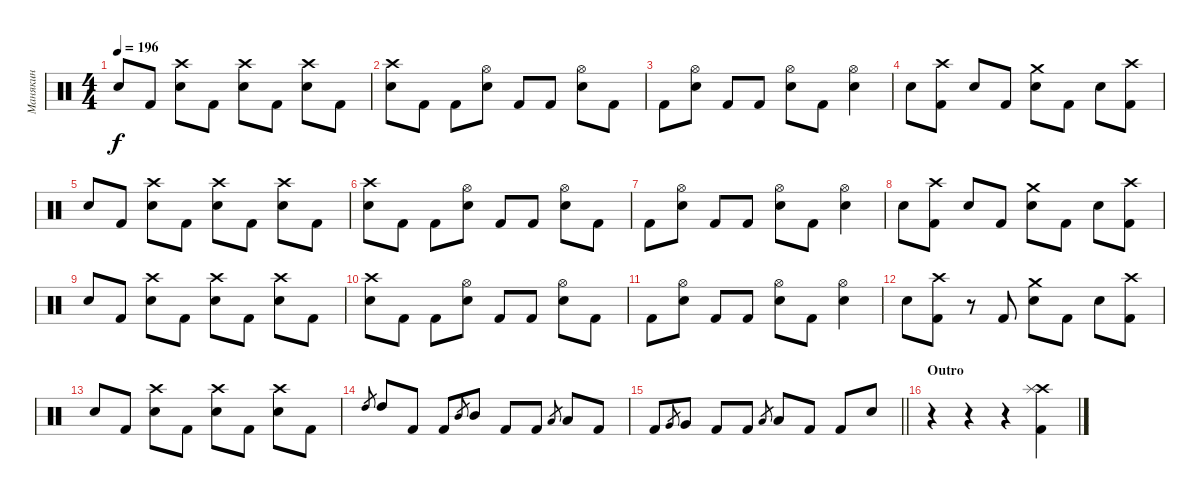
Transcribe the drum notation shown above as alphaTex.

\track ("Манякин" "Манякин") {instrument percussion}
\staff {score}
\articulation defaults
\ts (4 4)
\tempo 196
\clef neutral
\ks c "Electric Snare (hit)".8{dy f} "Kick (hit) 2".8
("Crash high (hit)" "Electric Snare (hit)").8 "Kick (hit) 2".8 ("Crash high (hit)" "Electric Snare (hit)").8 "Kick (hit) 2".8 ("Crash high (hit)" "Electric Snare (hit)").8 "Kick (hit) 2".8 |
("Crash high (hit)" "Electric Snare (hit)").8 "Kick (hit) 2".8 "Kick (hit) 2".8 ("Hi-Hat (open)" "Electric Snare (hit)").8 "Kick (hit) 2".8 "Kick (hit) 2".8 ("Hi-Hat (open)" "Electric Snare (hit)").8 "Kick (hit) 2".8 |
"Kick (hit) 2".8 ("Hi-Hat (open)" "Electric Snare (hit)").8 "Kick (hit) 2".8 "Kick (hit) 2".8 ("Hi-Hat (open)" "Electric Snare (hit)").8 "Kick (hit) 2".8 ("Hi-Hat (open)" "Electric Snare (hit)").4 |
"Electric Snare (hit)".8 ("Crash high (hit)" "Kick (hit) 2").8 "Electric Snare (hit)".8 "Kick (hit) 2".8 ("Crash medium (hit)" "Electric Snare (hit)").8 "Kick (hit) 2".8 "Electric Snare (hit)".8 ("Crash high (hit)" "Kick (hit) 2").8 |
"Electric Snare (hit)".8 "Kick (hit) 2".8 ("Crash high (hit)" "Electric Snare (hit)").8 "Kick (hit) 2".8 ("Crash high (hit)" "Electric Snare (hit)").8 "Kick (hit) 2".8 ("Crash high (hit)" "Electric Snare (hit)").8 "Kick (hit) 2".8 |
("Crash high (hit)" "Electric Snare (hit)").8 "Kick (hit) 2".8 "Kick (hit) 2".8 ("Hi-Hat (open)" "Electric Snare (hit)").8 "Kick (hit) 2".8 "Kick (hit) 2".8 ("Hi-Hat (open)" "Electric Snare (hit)").8 "Kick (hit) 2".8 |
"Kick (hit) 2".8 ("Hi-Hat (open)" "Electric Snare (hit)").8 "Kick (hit) 2".8 "Kick (hit) 2".8 ("Hi-Hat (open)" "Electric Snare (hit)").8 "Kick (hit) 2".8 ("Hi-Hat (open)" "Electric Snare (hit)").4 |
"Electric Snare (hit)".8 ("Crash high (hit)" "Kick (hit) 2").8 "Electric Snare (hit)".8 "Kick (hit) 2".8 ("Crash medium (hit)" "Electric Snare (hit)").8 "Kick (hit) 2".8 "Electric Snare (hit)".8 ("Crash high (hit)" "Kick (hit) 2").8 |
"Electric Snare (hit)".8 "Kick (hit) 2".8 ("Crash high (hit)" "Electric Snare (hit)").8 "Kick (hit) 2".8 ("Crash high (hit)" "Electric Snare (hit)").8 "Kick (hit) 2".8 ("Crash high (hit)" "Electric Snare (hit)").8 "Kick (hit) 2".8 |
("Crash high (hit)" "Electric Snare (hit)").8 "Kick (hit) 2".8 "Kick (hit) 2".8 ("Hi-Hat (open)" "Electric Snare (hit)").8 "Kick (hit) 2".8 "Kick (hit) 2".8 ("Hi-Hat (open)" "Electric Snare (hit)").8 "Kick (hit) 2".8 |
"Kick (hit) 2".8 ("Hi-Hat (open)" "Electric Snare (hit)").8 "Kick (hit) 2".8 "Kick (hit) 2".8 ("Hi-Hat (open)" "Electric Snare (hit)").8 "Kick (hit) 2".8 ("Hi-Hat (open)" "Electric Snare (hit)").4 |
"Electric Snare (hit)".8 ("Crash high (hit)" "Kick (hit) 2").8 r.8 "Kick (hit) 2".8 ("Crash medium (hit)" "Electric Snare (hit)").8 "Kick (hit) 2".8 "Electric Snare (hit)".8 ("Crash high (hit)" "Kick (hit) 2").8 |
"Electric Snare (hit)".8 "Kick (hit) 2".8 ("Crash high (hit)" "Electric Snare (hit)").8 "Kick (hit) 2".8 ("Crash high (hit)" "Electric Snare (hit)").8 "Kick (hit) 2".8 ("Crash high (hit)" "Electric Snare (hit)").8 "Kick (hit) 2".8 |
"High Tom (hit)".8{gr} "High Tom (hit)".8 "Kick (hit) 2".8 "Kick (hit) 2".8 "Mid Tom (hit)".8{gr} "Mid Tom (hit)".8 "Kick (hit) 2".8 "Kick (hit) 2".8 "Low Tom (hit)".8{gr} "Low Tom (hit)".8 "Kick (hit) 2".8 |
\barLineRight lightlight "Kick (hit) 2".8 "Very Low Tom (hit)".8{gr} "Very Low Tom (hit)".8 "Kick (hit) 2".8 "Kick (hit) 2".8 "Low Floor Tom (hit)".8{gr} "Low Floor Tom (hit)".8 "Kick (hit) 2".8 "Kick (hit) 2".8 "Electric Snare (hit)".8
|
\section ("" "Outro")
r.4 r.4 r.4 ("Crash high (hit)" "Splash (hit)" "Kick (hit) 2").4
